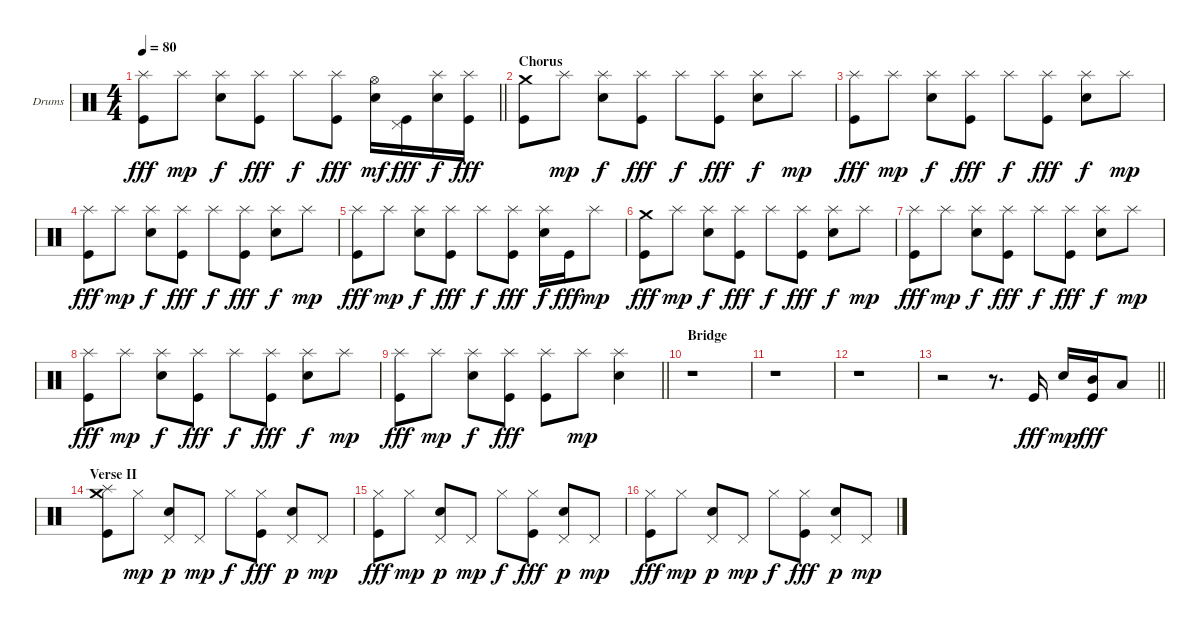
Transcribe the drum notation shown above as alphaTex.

\bracketExtendMode groupsimilarinstruments
\firstSystemTrackNameOrientation horizontal
\otherSystemsTrackNameOrientation horizontal
\track ("Drumkit" "Drums") {instrument percussion}
\staff {score}
\articulation defaults
\ts (4 4)
\tempo 80
\clef neutral
\barLineRight lightlight
\ks c
("Kick (hit)" "Splash (hit)").8{dy fff} "Splash (hit)".8{dy mp} ("Splash (hit)" "Snare (hit) 2").8{dy f} ("Kick (hit)" "Splash (hit)").8{dy fff} "Splash (hit)".8{dy f} ("Kick (hit)" "Splash (hit)").8{dy fff} ("Hi-Hat (open)" "Snare (hit) 2").16{dy mf} ("Kick (hit)" "Pedal Hi-Hat (hit)").16{dy fff} ("Splash (hit)" "Snare (hit) 2").16{dy f} ("Kick (hit)" "Splash (hit)").16{dy fff} |
\section ("" "Chorus")
("Kick (hit)" "Crash medium (hit)").8 "Splash (hit)".8{dy mp} ("Splash (hit)" "Snare (hit) 2").8{dy f} ("Kick (hit)" "Splash (hit)").8{dy fff} "Splash (hit)".8{dy f} ("Kick (hit)" "Splash (hit)").8{dy fff} ("Splash (hit)" "Snare (hit) 2").8{dy f} "Splash (hit)".8{dy mp} |
("Kick (hit)" "Splash (hit)").8{dy fff} "Splash (hit)".8{dy mp} ("Splash (hit)" "Snare (hit) 2").8{dy f} ("Kick (hit)" "Splash (hit)").8{dy fff} "Splash (hit)".8{dy f} ("Kick (hit)" "Splash (hit)").8{dy fff} ("Splash (hit)" "Snare (hit) 2").8{dy f} "Splash (hit)".8{dy mp} |
("Kick (hit)" "Splash (hit)").8{dy fff} "Splash (hit)".8{dy mp} ("Splash (hit)" "Snare (hit) 2").8{dy f} ("Kick (hit)" "Splash (hit)").8{dy fff} "Splash (hit)".8{dy f} ("Kick (hit)" "Splash (hit)").8{dy fff} ("Splash (hit)" "Snare (hit) 2").8{dy f} "Splash (hit)".8{dy mp} |
("Kick (hit)" "Splash (hit)").8{dy fff} "Splash (hit)".8{dy mp} ("Splash (hit)" "Snare (hit) 2").8{dy f} ("Kick (hit)" "Splash (hit)").8{dy fff} "Splash (hit)".8{dy f} ("Kick (hit)" "Splash (hit)").8{dy fff} ("Splash (hit)" "Snare (hit) 2").16{dy f} "Kick (hit)".16{dy fff} "Splash (hit)".8{dy mp} |
("Kick (hit)" "Crash medium (hit)").8{dy fff} "Splash (hit)".8{dy mp} ("Splash (hit)" "Snare (hit) 2").8{dy f} ("Kick (hit)" "Splash (hit)").8{dy fff} "Splash (hit)".8{dy f} ("Kick (hit)" "Splash (hit)").8{dy fff} ("Splash (hit)" "Snare (hit) 2").8{dy f} "Splash (hit)".8{dy mp} |
("Kick (hit)" "Splash (hit)").8{dy fff} "Splash (hit)".8{dy mp} ("Splash (hit)" "Snare (hit) 2").8{dy f} ("Kick (hit)" "Splash (hit)").8{dy fff} "Splash (hit)".8{dy f} ("Kick (hit)" "Splash (hit)").8{dy fff} ("Splash (hit)" "Snare (hit) 2").8{dy f} "Splash (hit)".8{dy mp} |
("Kick (hit)" "Splash (hit)").8{dy fff} "Splash (hit)".8{dy mp} ("Splash (hit)" "Snare (hit) 2").8{dy f} ("Kick (hit)" "Splash (hit)").8{dy fff} "Splash (hit)".8{dy f} ("Kick (hit)" "Splash (hit)").8{dy fff} ("Splash (hit)" "Snare (hit) 2").8{dy f} "Splash (hit)".8{dy mp} |
\barLineRight lightlight
("Kick (hit)" "Splash (hit)").8{dy fff} "Splash (hit)".8{dy mp} ("Splash (hit)" "Snare (hit) 2").8{dy f} ("Kick (hit)" "Splash (hit)").8{dy fff} ("Kick (hit)" "Splash (hit)").8 "Splash (hit)".8{dy mp} ("Splash (hit)" "Snare (hit) 2").4 |
\section ("" "Bridge")
r.1 |
r.1 |
r.1 |
\barLineRight lightlight
r.2 r.8{d} "Kick (hit)".16{dy fff} "Snare (hit) 2".16{dy mp} ("Kick (hit)" "Mid Tom (hit)").16{dy fff} "Low Tom (hit)".8 |
\section ("" "Verse II")
("Kick (hit)" "Crash medium (hit)" "Splash (hit)").8 "Hi-Hat (closed)".8{dy mp} ("Pedal Hi-Hat (hit)" "Snare (hit) 2").8{dy p} "Pedal Hi-Hat (hit)".8{dy mp} "Hi-Hat (closed)".8{dy f} ("Kick (hit)" "Hi-Hat (closed)").8{dy fff} ("Pedal Hi-Hat (hit)" "Snare (hit) 2").8{dy p} "Pedal Hi-Hat (hit)".8{dy mp} |
("Kick (hit)" "Hi-Hat (closed)").8{dy fff} "Hi-Hat (closed)".8{dy mp} ("Pedal Hi-Hat (hit)" "Snare (hit) 2").8{dy p} "Pedal Hi-Hat (hit)".8{dy mp} "Hi-Hat (closed)".8{dy f} ("Kick (hit)" "Hi-Hat (closed)").8{dy fff} ("Pedal Hi-Hat (hit)" "Snare (hit) 2").8{dy p} "Pedal Hi-Hat (hit)".8{dy mp} |
("Kick (hit)" "Hi-Hat (closed)").8{dy fff} "Hi-Hat (closed)".8{dy mp} ("Pedal Hi-Hat (hit)" "Snare (hit) 2").8{dy p} "Pedal Hi-Hat (hit)".8{dy mp} "Hi-Hat (closed)".8{dy f} ("Kick (hit)" "Hi-Hat (closed)").8{dy fff} ("Pedal Hi-Hat (hit)" "Snare (hit) 2").8{dy p} "Pedal Hi-Hat (hit)".8{dy mp}
